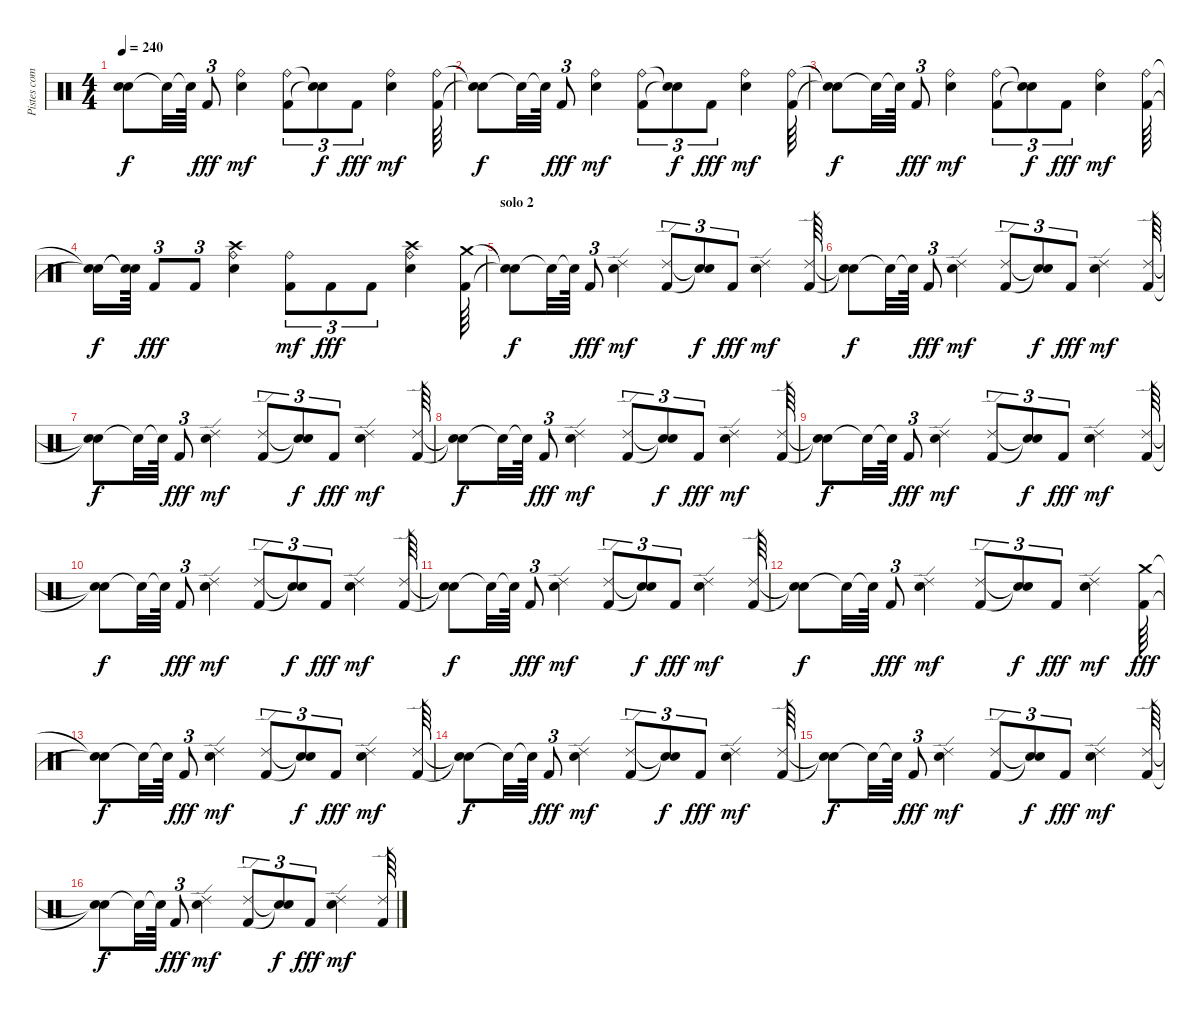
\track ("Pistes combinées" "Pistes com") {instrument percussion}
\staff {score}
\articulation defaults
\ts (4 4)
\tempo 240
\clef neutral
\ks c
("Snare (hit)"{t} "Snare (hit)"{t}).8{dy f} "Snare (hit)"{t}.32 "Snare (hit)"{t}.64 "Kick (hit) 2".8{tu (3 2) dy fff} ("Electric Snare (hit)" "Ride (bell)").4{dy mf} ("Kick (hit) 2" "Ride (bell)").8{tu (3 2)} ("Snare (hit)"{t} "Snare (hit)"{t}).8{tu (3 2) dy f} "Kick (hit) 2".8{tu (3 2) dy fff} ("Electric Snare (hit)" "Ride (bell)").4{dy mf} ("Kick (hit) 2" "Ride (bell)").64 |
("Snare (hit)"{t} "Snare (hit)"{t}).8{dy f} "Snare (hit)"{t}.32 "Snare (hit)"{t}.64 "Kick (hit) 2".8{tu (3 2) dy fff} ("Electric Snare (hit)" "Ride (bell)").4{dy mf} ("Kick (hit) 2" "Ride (bell)").8{tu (3 2)} ("Snare (hit)"{t} "Snare (hit)"{t}).8{tu (3 2) dy f} "Kick (hit) 2".8{tu (3 2) dy fff} ("Electric Snare (hit)" "Ride (bell)").4{dy mf} ("Kick (hit) 2" "Ride (bell)").64 |
("Snare (hit)"{t} "Snare (hit)"{t}).8{dy f} "Snare (hit)"{t}.32 "Snare (hit)"{t}.64 "Kick (hit) 2".8{tu (3 2) dy fff} ("Electric Snare (hit)" "Ride (bell)").4{dy mf} ("Kick (hit) 2" "Ride (bell)").8{tu (3 2)} ("Snare (hit)"{t} "Snare (hit)"{t}).8{tu (3 2) dy f} "Kick (hit) 2".8{tu (3 2) dy fff} ("Electric Snare (hit)" "Ride (bell)").4{dy mf} ("Kick (hit) 2" "Ride (bell)").64 |
("Snare (hit)"{t} "Snare (hit)"{t}).16{dy f} ("Snare (hit)"{t} "Snare (hit)"{t}).64 "Kick (hit) 2".8{tu (3 2) dy fff} "Kick (hit) 2".8{tu (3 2)} ("Electric Snare (hit)" "Ride (bell)" "Crash high (hit)").4 ("Kick (hit) 2" "Ride (bell)").8{tu (3 2) dy mf} "Kick (hit) 2".8{tu (3 2) dy fff} "Kick (hit) 2".8{tu (3 2)} ("Electric Snare (hit)" "Ride (bell)" "Crash high (hit)").4 ("Kick (hit) 2" "Crash medium (hit)").64 |
\section ("" "solo 2")
("Snare (hit)"{t} "Snare (hit)"{t}).8{dy f} "Snare (hit)"{t}.32 "Snare (hit)"{t}.64 "Kick (hit) 2".8{tu (3 2) dy fff} ("Electric Snare (hit)" "Ride (edge) 2").4{dy mf} ("Kick (hit) 2" "Ride (edge) 2").8{tu (3 2)} ("Snare (hit)"{t} "Snare (hit)"{t}).8{tu (3 2) dy f} "Kick (hit) 2".8{tu (3 2) dy fff} ("Electric Snare (hit)" "Ride (edge) 2").4{dy mf} ("Kick (hit) 2" "Ride (edge) 2").64 |
("Snare (hit)"{t} "Snare (hit)"{t}).8{dy f} "Snare (hit)"{t}.32 "Snare (hit)"{t}.64 "Kick (hit) 2".8{tu (3 2) dy fff} ("Electric Snare (hit)" "Ride (edge) 2").4{dy mf} ("Kick (hit) 2" "Ride (edge) 2").8{tu (3 2)} ("Snare (hit)"{t} "Snare (hit)"{t}).8{tu (3 2) dy f} "Kick (hit) 2".8{tu (3 2) dy fff} ("Electric Snare (hit)" "Ride (edge) 2").4{dy mf} ("Kick (hit) 2" "Ride (edge) 2").64 |
("Snare (hit)"{t} "Snare (hit)"{t}).8{dy f} "Snare (hit)"{t}.32 "Snare (hit)"{t}.64 "Kick (hit) 2".8{tu (3 2) dy fff} ("Electric Snare (hit)" "Ride (edge) 2").4{dy mf} ("Kick (hit) 2" "Ride (edge) 2").8{tu (3 2)} ("Snare (hit)"{t} "Snare (hit)"{t}).8{tu (3 2) dy f} "Kick (hit) 2".8{tu (3 2) dy fff} ("Electric Snare (hit)" "Ride (edge) 2").4{dy mf} ("Kick (hit) 2" "Ride (edge) 2").64 |
("Snare (hit)"{t} "Snare (hit)"{t}).8{dy f} "Snare (hit)"{t}.32 "Snare (hit)"{t}.64 "Kick (hit) 2".8{tu (3 2) dy fff} ("Electric Snare (hit)" "Ride (edge) 2").4{dy mf} ("Kick (hit) 2" "Ride (edge) 2").8{tu (3 2)} ("Snare (hit)"{t} "Snare (hit)"{t}).8{tu (3 2) dy f} "Kick (hit) 2".8{tu (3 2) dy fff} ("Electric Snare (hit)" "Ride (edge) 2").4{dy mf} ("Kick (hit) 2" "Ride (edge) 2").64 |
("Snare (hit)"{t} "Snare (hit)"{t}).8{dy f} "Snare (hit)"{t}.32 "Snare (hit)"{t}.64 "Kick (hit) 2".8{tu (3 2) dy fff} ("Electric Snare (hit)" "Ride (edge) 2").4{dy mf} ("Kick (hit) 2" "Ride (edge) 2").8{tu (3 2)} ("Snare (hit)"{t} "Snare (hit)"{t}).8{tu (3 2) dy f} "Kick (hit) 2".8{tu (3 2) dy fff} ("Electric Snare (hit)" "Ride (edge) 2").4{dy mf} ("Kick (hit) 2" "Ride (edge) 2").64 |
("Snare (hit)"{t} "Snare (hit)"{t}).8{dy f} "Snare (hit)"{t}.32 "Snare (hit)"{t}.64 "Kick (hit) 2".8{tu (3 2) dy fff} ("Electric Snare (hit)" "Ride (edge) 2").4{dy mf} ("Kick (hit) 2" "Ride (edge) 2").8{tu (3 2)} ("Snare (hit)"{t} "Snare (hit)"{t}).8{tu (3 2) dy f} "Kick (hit) 2".8{tu (3 2) dy fff} ("Electric Snare (hit)" "Ride (edge) 2").4{dy mf} ("Kick (hit) 2" "Ride (edge) 2").64 |
("Snare (hit)"{t} "Snare (hit)"{t}).8{dy f} "Snare (hit)"{t}.32 "Snare (hit)"{t}.64 "Kick (hit) 2".8{tu (3 2) dy fff} ("Electric Snare (hit)" "Ride (edge) 2").4{dy mf} ("Kick (hit) 2" "Ride (edge) 2").8{tu (3 2)} ("Snare (hit)"{t} "Snare (hit)"{t}).8{tu (3 2) dy f} "Kick (hit) 2".8{tu (3 2) dy fff} ("Electric Snare (hit)" "Ride (edge) 2").4{dy mf} ("Kick (hit) 2" "Ride (edge) 2").64 |
("Snare (hit)"{t} "Snare (hit)"{t}).8{dy f} "Snare (hit)"{t}.32 "Snare (hit)"{t}.64 "Kick (hit) 2".8{tu (3 2) dy fff} ("Electric Snare (hit)" "Ride (edge) 2").4{dy mf} ("Kick (hit) 2" "Ride (edge) 2").8{tu (3 2)} ("Snare (hit)"{t} "Snare (hit)"{t}).8{tu (3 2) dy f} "Kick (hit) 2".8{tu (3 2) dy fff} ("Electric Snare (hit)" "Ride (edge) 2").4{dy mf} ("Kick (hit) 2" "Crash medium (hit)").64{dy fff} |
("Snare (hit)"{t} "Snare (hit)"{t}).8{dy f} "Snare (hit)"{t}.32 "Snare (hit)"{t}.64 "Kick (hit) 2".8{tu (3 2) dy fff} ("Electric Snare (hit)" "Ride (edge) 2").4{dy mf} ("Kick (hit) 2" "Ride (edge) 2").8{tu (3 2)} ("Snare (hit)"{t} "Snare (hit)"{t}).8{tu (3 2) dy f} "Kick (hit) 2".8{tu (3 2) dy fff} ("Electric Snare (hit)" "Ride (edge) 2").4{dy mf} ("Kick (hit) 2" "Ride (edge) 2").64 |
("Snare (hit)"{t} "Snare (hit)"{t}).8{dy f} "Snare (hit)"{t}.32 "Snare (hit)"{t}.64 "Kick (hit) 2".8{tu (3 2) dy fff} ("Electric Snare (hit)" "Ride (edge) 2").4{dy mf} ("Kick (hit) 2" "Ride (edge) 2").8{tu (3 2)} ("Snare (hit)"{t} "Snare (hit)"{t}).8{tu (3 2) dy f} "Kick (hit) 2".8{tu (3 2) dy fff} ("Electric Snare (hit)" "Ride (edge) 2").4{dy mf} ("Kick (hit) 2" "Ride (edge) 2").64 |
("Snare (hit)"{t} "Snare (hit)"{t}).8{dy f} "Snare (hit)"{t}.32 "Snare (hit)"{t}.64 "Kick (hit) 2".8{tu (3 2) dy fff} ("Electric Snare (hit)" "Ride (edge) 2").4{dy mf} ("Kick (hit) 2" "Ride (edge) 2").8{tu (3 2)} ("Snare (hit)"{t} "Snare (hit)"{t}).8{tu (3 2) dy f} "Kick (hit) 2".8{tu (3 2) dy fff} ("Electric Snare (hit)" "Ride (edge) 2").4{dy mf} ("Kick (hit) 2" "Ride (edge) 2").64 |
("Snare (hit)"{t} "Snare (hit)"{t}).8{dy f} "Snare (hit)"{t}.32 "Snare (hit)"{t}.64 "Kick (hit) 2".8{tu (3 2) dy fff} ("Electric Snare (hit)" "Ride (edge) 2").4{dy mf} ("Kick (hit) 2" "Ride (edge) 2").8{tu (3 2)} ("Snare (hit)"{t} "Snare (hit)"{t}).8{tu (3 2) dy f} "Kick (hit) 2".8{tu (3 2) dy fff} ("Electric Snare (hit)" "Ride (edge) 2").4{dy mf} ("Kick (hit) 2" "Ride (edge) 2").64
